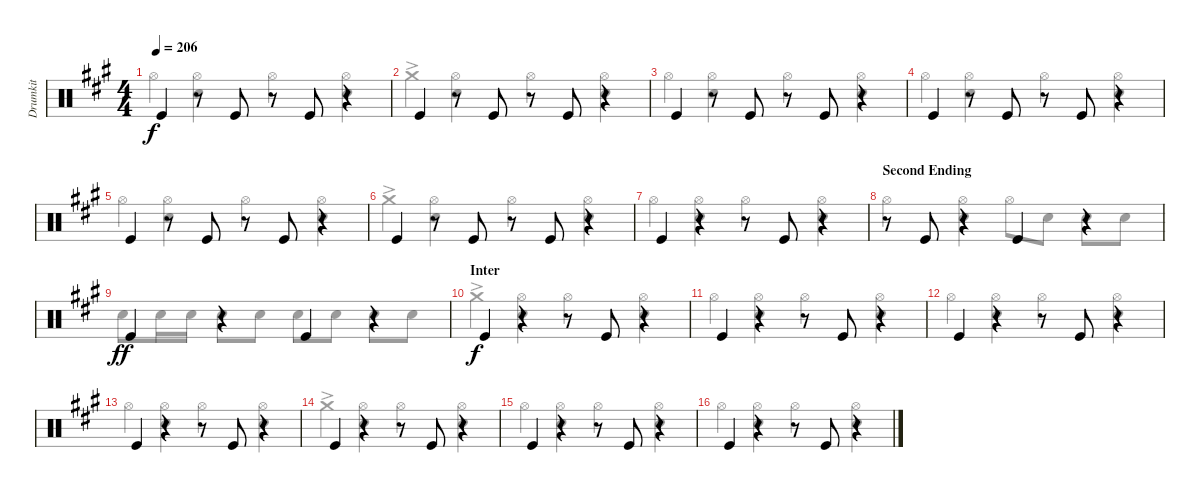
\track ("Drumkit" "Drumkit") {instrument percussion}
\staff {score}
\articulation defaults
\voice
\ts (4 4)
\tempo 206
\clef neutral
\ks a "Kick (hit)".4{dy f}
r.8 "Kick (hit)".8 r.8 "Kick (hit)".8 r.4 |
"Kick (hit)".4 r.8 "Kick (hit)".8 r.8 "Kick (hit)".8 r.4 |
"Kick (hit)".4 r.8 "Kick (hit)".8 r.8 "Kick (hit)".8 r.4 |
"Kick (hit)".4 r.8 "Kick (hit)".8 r.8 "Kick (hit)".8 r.4 |
"Kick (hit)".4 r.8 "Kick (hit)".8 r.8 "Kick (hit)".8 r.4 |
"Kick (hit)".4 r.8 "Kick (hit)".8 r.8 "Kick (hit)".8 r.4 |
"Kick (hit)".4 r.4 r.8 "Kick (hit)".8 r.4 |
\section ("" "Second Ending")
r.8 "Kick (hit)".8 r.4 "Kick (hit)".4 r.4 |
"Kick (hit)".4{dy ff} r.4 "Kick (hit)".4 r.4 |
\section ("" "Inter")
"Kick (hit)".4{dy f} r.4 r.8 "Kick (hit)".8 r.4 |
"Kick (hit)".4 r.4 r.8 "Kick (hit)".8 r.4 |
"Kick (hit)".4 r.4 r.8 "Kick (hit)".8 r.4 |
"Kick (hit)".4 r.4 r.8 "Kick (hit)".8 r.4 |
"Kick (hit)".4 r.4 r.8 "Kick (hit)".8 r.4 |
"Kick (hit)".4 r.4 r.8 "Kick (hit)".8 r.4 |
"Kick (hit)".4 r.4 r.8 "Kick (hit)".8 r.4
\voice
\clef neutral
\ottava regular
\simile none
\ks a "Hi-Hat (open)".4{dy f}
("Hi-Hat (open)" "Snare (hit) 2").4 "Hi-Hat (open)".4 ("Hi-Hat (open)" "Snare (hit) 2").4 |
"Crash medium (hit)"{ac}.4 ("Hi-Hat (open)" "Snare (hit) 2").4 "Hi-Hat (open)".4 ("Hi-Hat (open)" "Snare (hit) 2").4 |
"Hi-Hat (open)".4 ("Hi-Hat (open)" "Snare (hit) 2").4 "Hi-Hat (open)".4 ("Hi-Hat (open)" "Snare (hit) 2").4 |
"Hi-Hat (open)".4 ("Hi-Hat (open)" "Snare (hit) 2").4 "Hi-Hat (open)".4 ("Hi-Hat (open)" "Snare (hit) 2").4 |
"Hi-Hat (open)".4 ("Hi-Hat (open)" "Snare (hit) 2").4 "Hi-Hat (open)".4 ("Hi-Hat (open)" "Snare (hit) 2").4 |
"Crash medium (hit)"{ac}.4 ("Hi-Hat (open)" "Snare (hit) 2").4 "Hi-Hat (open)".4 ("Hi-Hat (open)" "Snare (hit) 2").4 |
"Hi-Hat (open)".4 ("Hi-Hat (open)" "Snare (hit) 2").4 "Hi-Hat (open)".4 ("Hi-Hat (open)" "Snare (hit) 2").4 |
"Hi-Hat (open)".4 ("Hi-Hat (open)" "Snare (hit) 2").4 "Hi-Hat (open)".8 "Snare (hit) 2".8 "Snare (hit) 2".8 "Snare (hit) 2".8 |
"Snare (hit) 2".8{dy ff} "Snare (hit) 2".16 "Snare (hit) 2".16 "Snare (hit) 2".8 "Snare (hit) 2".8 "Snare (hit) 2".8 "Snare (hit) 2".8 "Snare (hit) 2".8 "Snare (hit) 2".8 |
"Crash medium (hit)"{ac}.4{dy f} ("Hi-Hat (open)" "Snare (hit) 2").4 "Hi-Hat (open)".4 ("Hi-Hat (open)" "Snare (hit) 2").4 |
"Hi-Hat (open)".4 ("Hi-Hat (open)" "Snare (hit) 2").4 "Hi-Hat (open)".4 ("Hi-Hat (open)" "Snare (hit) 2").4 |
"Hi-Hat (open)".4 ("Hi-Hat (open)" "Snare (hit) 2").4 "Hi-Hat (open)".4 ("Hi-Hat (open)" "Snare (hit) 2").4 |
"Hi-Hat (open)".4 ("Hi-Hat (open)" "Snare (hit) 2").4 "Hi-Hat (open)".4 ("Hi-Hat (open)" "Snare (hit) 2").4 |
"Crash medium (hit)"{ac}.4 ("Hi-Hat (open)" "Snare (hit) 2").4 "Hi-Hat (open)".4 ("Hi-Hat (open)" "Snare (hit) 2").4 |
"Hi-Hat (open)".4 ("Hi-Hat (open)" "Snare (hit) 2").4 "Hi-Hat (open)".4 ("Hi-Hat (open)" "Snare (hit) 2").4 |
"Hi-Hat (open)".4 ("Hi-Hat (open)" "Snare (hit) 2").4 "Hi-Hat (open)".4 ("Hi-Hat (open)" "Snare (hit) 2").4
